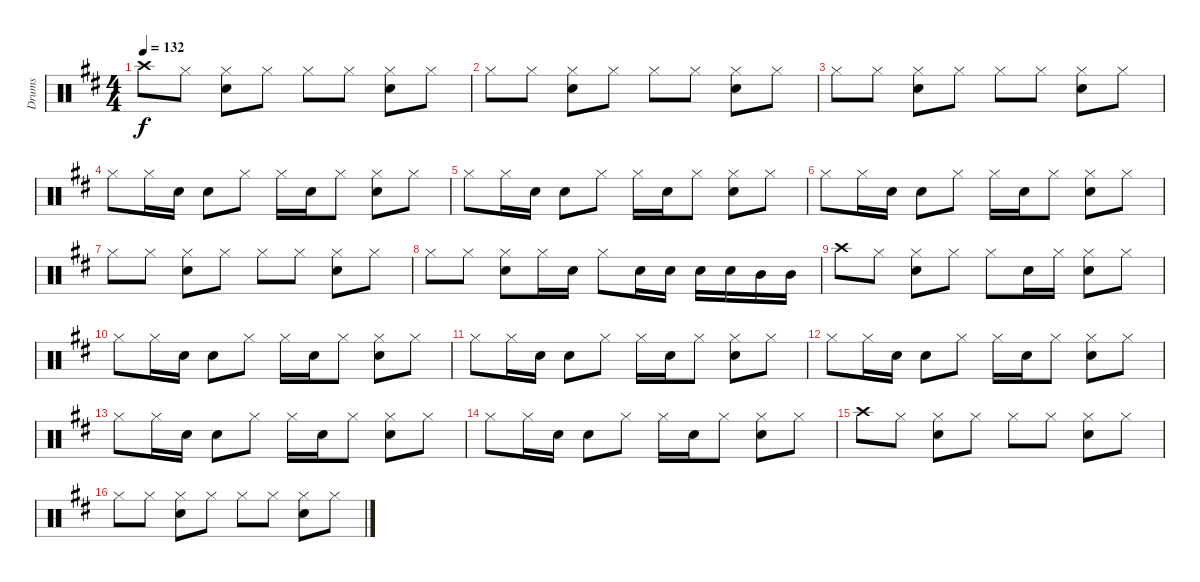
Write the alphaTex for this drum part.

\track ("Drums" "Drums") {instrument percussion}
\staff {score}
\articulation defaults
\ts (4 4)
\tempo 132
\clef neutral
\ks d "Crash high (hit)".8{dy f} "Hi-Hat (closed)".8
("Hi-Hat (closed)" "Snare (hit) 2").8 "Hi-Hat (closed)".8 "Hi-Hat (closed)".8 "Hi-Hat (closed)".8 ("Hi-Hat (closed)" "Snare (hit) 2").8 "Hi-Hat (closed)".8 |
"Hi-Hat (closed)".8 "Hi-Hat (closed)".8 ("Hi-Hat (closed)" "Snare (hit) 2").8 "Hi-Hat (closed)".8 "Hi-Hat (closed)".8 "Hi-Hat (closed)".8 ("Hi-Hat (closed)" "Snare (hit) 2").8 "Hi-Hat (closed)".8 |
"Hi-Hat (closed)".8 "Hi-Hat (closed)".8 ("Hi-Hat (closed)" "Snare (hit) 2").8 "Hi-Hat (closed)".8 "Hi-Hat (closed)".8 "Hi-Hat (closed)".8 ("Hi-Hat (closed)" "Snare (hit) 2").8 "Hi-Hat (closed)".8 |
"Hi-Hat (closed)".8 "Hi-Hat (closed)".16 "Snare (hit) 2".16 "Snare (hit) 2".8 "Hi-Hat (closed)".8 "Hi-Hat (closed)".16 "Snare (hit) 2".16 "Hi-Hat (closed)".8 ("Hi-Hat (closed)" "Snare (hit) 2").8 "Hi-Hat (closed)".8 |
"Hi-Hat (closed)".8 "Hi-Hat (closed)".16 "Snare (hit) 2".16 "Snare (hit) 2".8 "Hi-Hat (closed)".8 "Hi-Hat (closed)".16 "Snare (hit) 2".16 "Hi-Hat (closed)".8 ("Hi-Hat (closed)" "Snare (hit) 2").8 "Hi-Hat (closed)".8 |
"Hi-Hat (closed)".8 "Hi-Hat (closed)".16 "Snare (hit) 2".16 "Snare (hit) 2".8 "Hi-Hat (closed)".8 "Hi-Hat (closed)".16 "Snare (hit) 2".16 "Hi-Hat (closed)".8 ("Hi-Hat (closed)" "Snare (hit) 2").8 "Hi-Hat (closed)".8 |
"Hi-Hat (closed)".8 "Hi-Hat (closed)".8 ("Hi-Hat (closed)" "Snare (hit) 2").8 "Hi-Hat (closed)".8 "Hi-Hat (closed)".8 "Hi-Hat (closed)".8 ("Hi-Hat (closed)" "Snare (hit) 2").8 "Hi-Hat (closed)".8 |
"Hi-Hat (closed)".8 "Hi-Hat (closed)".8 ("Hi-Hat (closed)" "Snare (hit) 2").8 "Hi-Hat (closed)".16 "Snare (hit) 2".16 "Hi-Hat (closed)".8 "Snare (hit) 2".16 "Snare (hit) 2".16 "Snare (hit) 2".16 "Snare (hit) 2".16 "Mid Tom (hit)".16 "Mid Tom (hit)".16 |
"Crash high (hit)".8 "Hi-Hat (closed)".8 ("Hi-Hat (closed)" "Snare (hit) 2").8 "Hi-Hat (closed)".8 "Hi-Hat (closed)".8 "Snare (hit) 2".16 "Hi-Hat (closed)".16 ("Hi-Hat (closed)" "Snare (hit) 2").8 "Hi-Hat (closed)".8 |
"Hi-Hat (closed)".8 "Hi-Hat (closed)".16 "Snare (hit) 2".16 "Snare (hit) 2".8 "Hi-Hat (closed)".8 "Hi-Hat (closed)".16 "Snare (hit) 2".16 "Hi-Hat (closed)".8 ("Hi-Hat (closed)" "Snare (hit) 2").8 "Hi-Hat (closed)".8 |
"Hi-Hat (closed)".8 "Hi-Hat (closed)".16 "Snare (hit) 2".16 "Snare (hit) 2".8 "Hi-Hat (closed)".8 "Hi-Hat (closed)".16 "Snare (hit) 2".16 "Hi-Hat (closed)".8 ("Hi-Hat (closed)" "Snare (hit) 2").8 "Hi-Hat (closed)".8 |
"Hi-Hat (closed)".8 "Hi-Hat (closed)".16 "Snare (hit) 2".16 "Snare (hit) 2".8 "Hi-Hat (closed)".8 "Hi-Hat (closed)".16 "Snare (hit) 2".16 "Hi-Hat (closed)".8 ("Hi-Hat (closed)" "Snare (hit) 2").8 "Hi-Hat (closed)".8 |
"Hi-Hat (closed)".8 "Hi-Hat (closed)".16 "Snare (hit) 2".16 "Snare (hit) 2".8 "Hi-Hat (closed)".8 "Hi-Hat (closed)".16 "Snare (hit) 2".16 "Hi-Hat (closed)".8 ("Hi-Hat (closed)" "Snare (hit) 2").8 "Hi-Hat (closed)".8 |
"Hi-Hat (closed)".8 "Hi-Hat (closed)".16 "Snare (hit) 2".16 "Snare (hit) 2".8 "Hi-Hat (closed)".8 "Hi-Hat (closed)".16 "Snare (hit) 2".16 "Hi-Hat (closed)".8 ("Hi-Hat (closed)" "Snare (hit) 2").8 "Hi-Hat (closed)".8 |
"Crash high (hit)".8 "Hi-Hat (closed)".8 ("Hi-Hat (closed)" "Snare (hit) 2").8 "Hi-Hat (closed)".8 "Hi-Hat (closed)".8 "Hi-Hat (closed)".8 ("Hi-Hat (closed)" "Snare (hit) 2").8 "Hi-Hat (closed)".8 |
"Hi-Hat (closed)".8 "Hi-Hat (closed)".8 ("Hi-Hat (closed)" "Snare (hit) 2").8 "Hi-Hat (closed)".8 "Hi-Hat (closed)".8 "Hi-Hat (closed)".8 ("Hi-Hat (closed)" "Snare (hit) 2").8 "Hi-Hat (closed)".8
